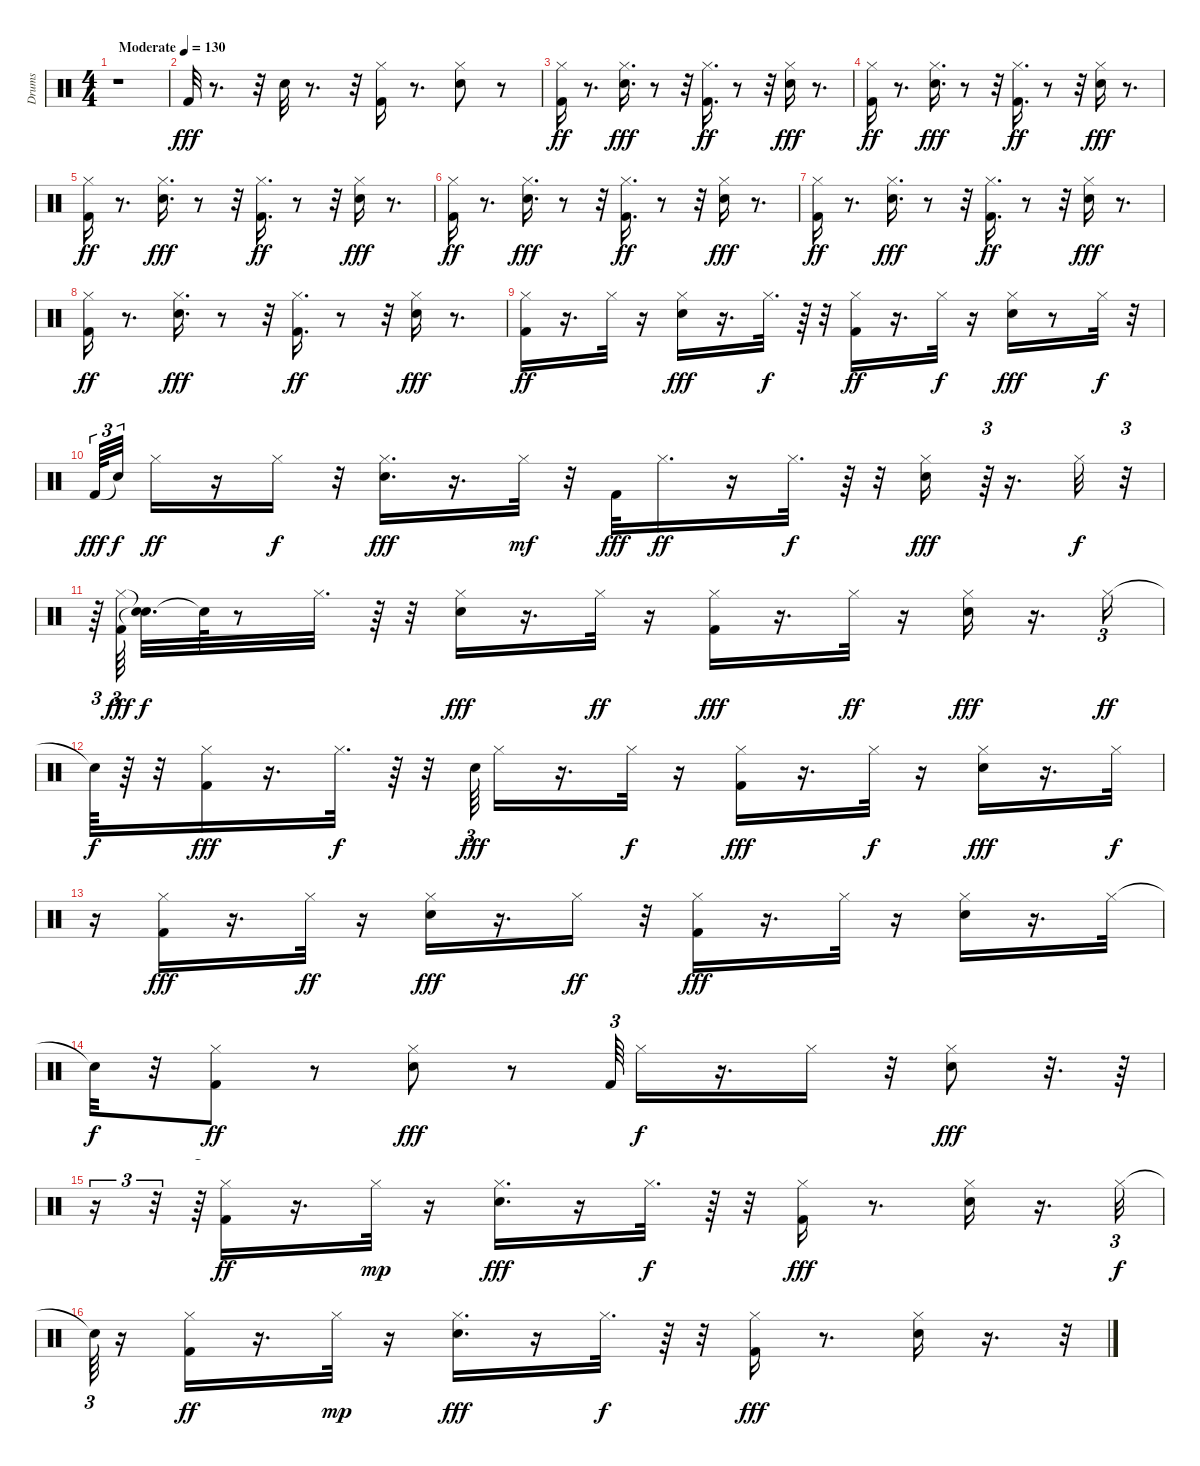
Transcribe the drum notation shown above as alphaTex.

\track ("Drums" "Drums") {instrument percussion}
\staff {score}
\articulation defaults
\ts (4 4)
\tempo (130 "Moderate")
\clef neutral
\ks c
r.1{dy fff} |
"Kick (hit) 2".32 r.8{d} r.32 "Electric Snare (hit)".32 r.8{d} r.32 ("Kick (hit) 2" "Hi-Hat (closed)").16 r.8{d} ("Electric Snare (hit)" "Hi-Hat (closed)").8 r.8 |
("Kick (hit) 2" "Hi-Hat (closed)").16{dy ff} r.8{d} ("Hi-Hat (closed)" "Electric Snare (hit)").16{d dy fff} r.8 r.32 ("Kick (hit) 2" "Hi-Hat (closed)").16{d dy ff} r.8 r.32 ("Electric Snare (hit)" "Hi-Hat (closed)").16{dy fff} r.8{d} |
("Kick (hit) 2" "Hi-Hat (closed)").16{dy ff} r.8{d} ("Hi-Hat (closed)" "Electric Snare (hit)").16{d dy fff} r.8 r.32 ("Kick (hit) 2" "Hi-Hat (closed)").16{d dy ff} r.8 r.32 ("Electric Snare (hit)" "Hi-Hat (closed)").16{dy fff} r.8{d} |
("Kick (hit) 2" "Hi-Hat (closed)").16{dy ff} r.8{d} ("Hi-Hat (closed)" "Electric Snare (hit)").16{d dy fff} r.8 r.32 ("Kick (hit) 2" "Hi-Hat (closed)").16{d dy ff} r.8 r.32 ("Electric Snare (hit)" "Hi-Hat (closed)").16{dy fff} r.8{d} |
("Kick (hit) 2" "Hi-Hat (closed)").16{dy ff} r.8{d} ("Electric Snare (hit)" "Hi-Hat (closed)").16{d dy fff} r.8 r.32 ("Kick (hit) 2" "Hi-Hat (closed)").16{d dy ff} r.8 r.32 ("Electric Snare (hit)" "Hi-Hat (closed)").16{dy fff} r.8{d} |
("Kick (hit) 2" "Hi-Hat (closed)").16{dy ff} r.8{d} ("Electric Snare (hit)" "Hi-Hat (closed)").16{d dy fff} r.8 r.32 ("Kick (hit) 2" "Hi-Hat (closed)").16{d dy ff} r.8 r.32 ("Electric Snare (hit)" "Hi-Hat (closed)").16{dy fff} r.8{d} |
("Kick (hit) 2" "Hi-Hat (closed)").16{dy ff} r.8{d} ("Hi-Hat (closed)" "Electric Snare (hit)").16{d dy fff} r.8 r.32 ("Kick (hit) 2" "Hi-Hat (closed)").16{d dy ff} r.8 r.32 ("Electric Snare (hit)" "Hi-Hat (closed)").16{dy fff} r.8{d} |
("Kick (hit) 2" "Hi-Hat (closed)").16{dy ff} r.16{d} "Hi-Hat (closed)".32 r.16 ("Electric Snare (hit)" "Hi-Hat (closed)").16{dy fff} r.16{d} "Hi-Hat (closed)".32{d dy f} r.64 r.32 ("Kick (hit) 2" "Hi-Hat (closed)").16{dy ff} r.16{d} "Hi-Hat (closed)".32{dy f} r.16 ("Electric Snare (hit)" "Hi-Hat (closed)").16{dy fff} r.8 "Hi-Hat (closed)".32{dy f} r.32 |
"Kick (hit) 2".64{tu (3 2) dy fff} "Snare (hit)"{t}.32{tu (3 2) dy f beam splitsecondary} "Hi-Hat (closed)".16{dy ff} r.16 "Hi-Hat (closed)".16{dy f} r.32 ("Hi-Hat (closed)" "Electric Snare (hit)").16{d dy fff} r.16{d} "Hi-Hat (closed)".32{dy mf} r.32 "Kick (hit) 2".32{dy fff} "Hi-Hat (closed)".16{d dy ff} r.16 "Hi-Hat (closed)".32{d dy f} r.64 r.32 ("Electric Snare (hit)" "Hi-Hat (closed)").16{dy fff} r.64{tu (3 2)} r.16{d} "Hi-Hat (closed)".32{dy f} r.32{tu (3 2)} |
r.64{tu (3 2)} ("Kick (hit) 2" "Hi-Hat (closed)").64{tu (3 2) dy fff beam splitsecondary} ("Snare (hit)"{t} "Snare (hit)"{t}).32{d dy f} "Snare (hit)"{t}.64 r.8 "Hi-Hat (closed)".32{d} r.64 r.32 ("Electric Snare (hit)" "Hi-Hat (closed)").16{dy fff} r.16{d} "Hi-Hat (closed)".32{dy ff} r.16 ("Kick (hit) 2" "Hi-Hat (closed)").16{dy fff} r.16{d} "Hi-Hat (closed)".32{dy ff} r.16 ("Electric Snare (hit)" "Hi-Hat (closed)").16{dy fff} r.16{d} "Hi-Hat (closed)".16{tu (3 2) dy ff} |
"Snare (hit)"{t}.64{dy f} r.64 r.32 ("Kick (hit) 2" "Hi-Hat (closed)").16{dy fff} r.16{d} "Hi-Hat (closed)".32{d dy f} r.64 r.32 "Electric Snare (hit)".64{tu (3 2) dy fff} "Hi-Hat (closed)".16 r.16{d} "Hi-Hat (closed)".32{dy f} r.16 ("Kick (hit) 2" "Hi-Hat (closed)").16{dy fff} r.16{d} "Hi-Hat (closed)".32{dy f} r.16 ("Electric Snare (hit)" "Hi-Hat (closed)").16{dy fff} r.16{d} "Hi-Hat (closed)".32{dy f} |
r.16 ("Kick (hit) 2" "Hi-Hat (closed)").16{dy fff} r.16{d} "Hi-Hat (closed)".32{dy ff} r.16 ("Hi-Hat (closed)" "Electric Snare (hit)").16{dy fff} r.16{d} "Hi-Hat (closed)".16{dy ff} r.32 ("Kick (hit) 2" "Hi-Hat (closed)").16{dy fff} r.16{d} "Hi-Hat (closed)".32 r.16 ("Hi-Hat (closed)" "Electric Snare (hit)").16 r.16{d} "Hi-Hat (closed)".32 |
"Snare (hit)"{t}.32{dy f} r.32 ("Kick (hit) 2" "Hi-Hat (closed)").8{dy ff} r.8 ("Electric Snare (hit)" "Hi-Hat (closed)").8{dy fff} r.8 "Kick (hit) 2".64{tu (3 2)} "Hi-Hat (closed)".16{dy f} r.16{d} "Hi-Hat (closed)".16 r.32 ("Electric Snare (hit)" "Hi-Hat (closed)").8{dy fff} r.32{d} r.64 |
r.16{tu (3 2)} r.32{tu (3 2)} r.64{tu (3 2)} ("Kick (hit) 2" "Hi-Hat (closed)").16{dy ff} r.16{d} "Hi-Hat (closed)".32{dy mp} r.16 ("Electric Snare (hit)" "Hi-Hat (closed)").16{d dy fff} r.16 "Hi-Hat (closed)".32{d dy f} r.64 r.32 ("Kick (hit) 2" "Hi-Hat (closed)").16{dy fff} r.8{d} ("Electric Snare (hit)" "Hi-Hat (closed)").16 r.16{d} "Hi-Hat (closed)".32{tu (3 2) dy f} |
"Snare (hit)"{t}.64{tu (3 2)} r.16 ("Kick (hit) 2" "Hi-Hat (closed)").16{dy ff} r.16{d} "Hi-Hat (closed)".32{dy mp} r.16 ("Electric Snare (hit)" "Hi-Hat (closed)").16{d dy fff} r.16 "Hi-Hat (closed)".32{d dy f} r.64 r.32 ("Kick (hit) 2" "Hi-Hat (closed)").16{dy fff} r.8{d} ("Electric Snare (hit)" "Hi-Hat (closed)").16 r.16{d} r.32{tu (3 2)}
